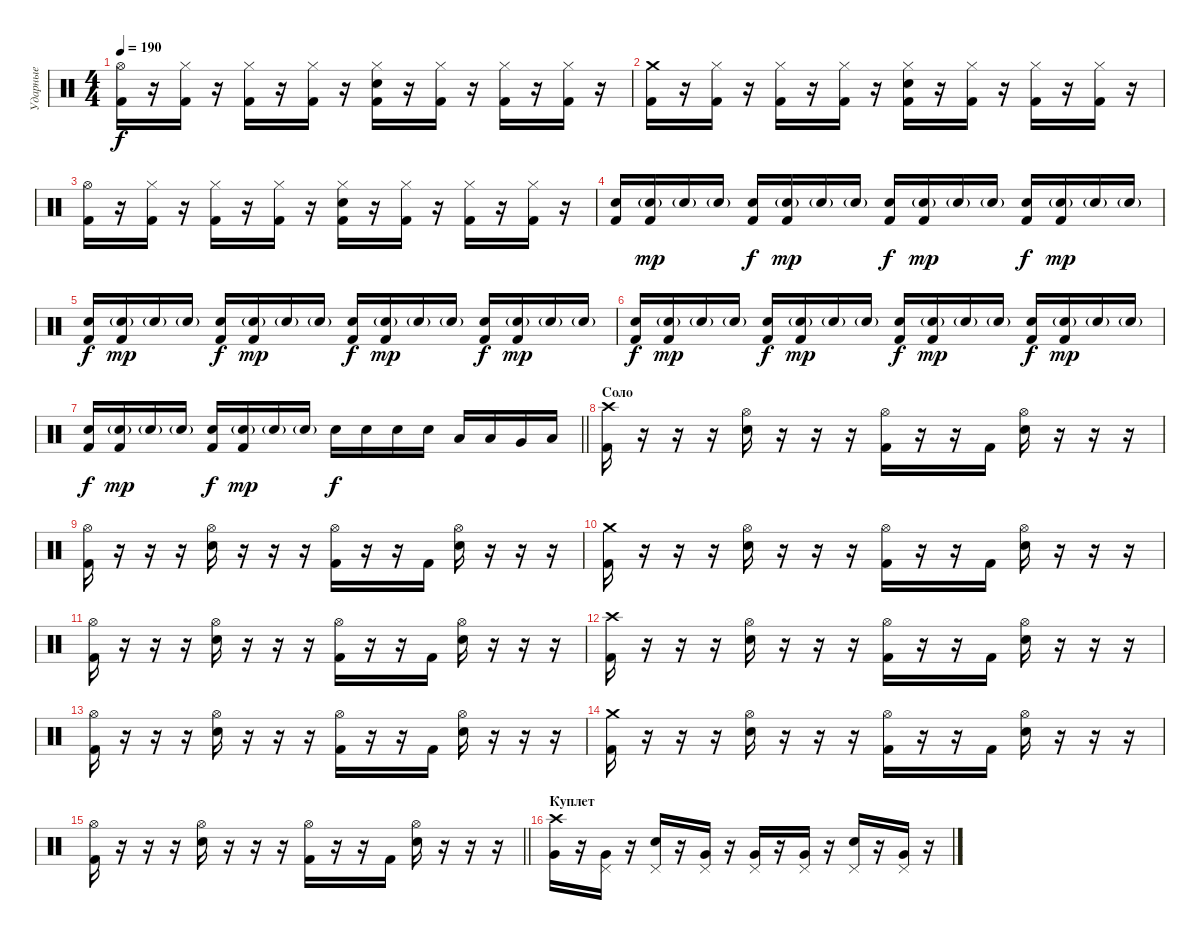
\track ("Ударные" "Ударные") {instrument percussion}
\staff {score}
\articulation defaults
\ts (4 4)
\tempo 190
\clef neutral
\ks c
("Hi-Hat (open)" "Kick (hit) 2").16{dy f} r.16 ("Kick (hit) 2" "Hi-Hat (closed)").16 r.16 ("Kick (hit) 2" "Hi-Hat (closed)").16 r.16 ("Kick (hit) 2" "Hi-Hat (closed)").16 r.16 ("Kick (hit) 2" "Electric Snare (hit)" "Hi-Hat (closed)").16 r.16 ("Kick (hit) 2" "Hi-Hat (closed)").16 r.16 ("Kick (hit) 2" "Hi-Hat (closed)").16 r.16 ("Kick (hit) 2" "Hi-Hat (closed)").16 r.16 |
("Crash medium (hit)" "Kick (hit) 2").16 r.16 ("Kick (hit) 2" "Hi-Hat (closed)").16 r.16 ("Kick (hit) 2" "Hi-Hat (closed)").16 r.16 ("Kick (hit) 2" "Hi-Hat (closed)").16 r.16 ("Kick (hit) 2" "Electric Snare (hit)" "Hi-Hat (closed)").16 r.16 ("Kick (hit) 2" "Hi-Hat (closed)").16 r.16 ("Kick (hit) 2" "Hi-Hat (closed)").16 r.16 ("Kick (hit) 2" "Hi-Hat (closed)").16 r.16 |
("Hi-Hat (open)" "Kick (hit) 2").16 r.16 ("Kick (hit) 2" "Hi-Hat (closed)").16 r.16 ("Kick (hit) 2" "Hi-Hat (closed)").16 r.16 ("Kick (hit) 2" "Hi-Hat (closed)").16 r.16 ("Kick (hit) 2" "Electric Snare (hit)" "Hi-Hat (closed)").16 r.16 ("Kick (hit) 2" "Hi-Hat (closed)").16 r.16 ("Kick (hit) 2" "Hi-Hat (closed)").16 r.16 ("Kick (hit) 2" "Hi-Hat (closed)").16 r.16 |
("Electric Snare (hit)" "Kick (hit) 2").16 ("Electric Snare (hit)"{g} "Kick (hit) 2").16{dy mp} "Electric Snare (hit)"{g}.16 "Electric Snare (hit)"{g}.16 ("Electric Snare (hit)" "Kick (hit) 2").16{dy f} ("Electric Snare (hit)"{g} "Kick (hit) 2").16{dy mp} "Electric Snare (hit)"{g}.16 "Electric Snare (hit)"{g}.16 ("Electric Snare (hit)" "Kick (hit) 2").16{dy f} ("Electric Snare (hit)"{g} "Kick (hit) 2").16{dy mp} "Electric Snare (hit)"{g}.16 "Electric Snare (hit)"{g}.16 ("Electric Snare (hit)" "Kick (hit) 2").16{dy f} ("Electric Snare (hit)"{g} "Kick (hit) 2").16{dy mp} "Electric Snare (hit)"{g}.16 "Electric Snare (hit)"{g}.16 |
("Electric Snare (hit)" "Kick (hit) 2").16{dy f} ("Electric Snare (hit)"{g} "Kick (hit) 2").16{dy mp} "Electric Snare (hit)"{g}.16 "Electric Snare (hit)"{g}.16 ("Electric Snare (hit)" "Kick (hit) 2").16{dy f} ("Electric Snare (hit)"{g} "Kick (hit) 2").16{dy mp} "Electric Snare (hit)"{g}.16 "Electric Snare (hit)"{g}.16 ("Electric Snare (hit)" "Kick (hit) 2").16{dy f} ("Electric Snare (hit)"{g} "Kick (hit) 2").16{dy mp} "Electric Snare (hit)"{g}.16 "Electric Snare (hit)"{g}.16 ("Electric Snare (hit)" "Kick (hit) 2").16{dy f} ("Electric Snare (hit)"{g} "Kick (hit) 2").16{dy mp} "Electric Snare (hit)"{g}.16 "Electric Snare (hit)"{g}.16 |
("Electric Snare (hit)" "Kick (hit) 2").16{dy f} ("Electric Snare (hit)"{g} "Kick (hit) 2").16{dy mp} "Electric Snare (hit)"{g}.16 "Electric Snare (hit)"{g}.16 ("Electric Snare (hit)" "Kick (hit) 2").16{dy f} ("Electric Snare (hit)"{g} "Kick (hit) 2").16{dy mp} "Electric Snare (hit)"{g}.16 "Electric Snare (hit)"{g}.16 ("Electric Snare (hit)" "Kick (hit) 2").16{dy f} ("Electric Snare (hit)"{g} "Kick (hit) 2").16{dy mp} "Electric Snare (hit)"{g}.16 "Electric Snare (hit)"{g}.16 ("Electric Snare (hit)" "Kick (hit) 2").16{dy f} ("Electric Snare (hit)"{g} "Kick (hit) 2").16{dy mp} "Electric Snare (hit)"{g}.16 "Electric Snare (hit)"{g}.16 |
\barLineRight lightlight
("Electric Snare (hit)" "Kick (hit) 2").16{dy f} ("Electric Snare (hit)"{g} "Kick (hit) 2").16{dy mp} "Electric Snare (hit)"{g}.16 "Electric Snare (hit)"{g}.16 ("Electric Snare (hit)" "Kick (hit) 2").16{dy f} ("Electric Snare (hit)"{g} "Kick (hit) 2").16{dy mp} "Electric Snare (hit)"{g}.16 "Electric Snare (hit)"{g}.16 "Electric Snare (hit)".16{dy f} "Electric Snare (hit)".16 "Electric Snare (hit)".16 "Electric Snare (hit)".16 "Low Tom (hit)".16 "Low Tom (hit)".16 "Very Low Tom (hit)".16 "Low Floor Tom (hit)".16 |
\section ("" "Соло")
("Crash high (hit)" "Kick (hit) 2").16 r.16 r.16 r.16 ("Hi-Hat (open)" "Electric Snare (hit)").16 r.16 r.16 r.16 ("Hi-Hat (open)" "Kick (hit) 2").16 r.16 r.16 "Kick (hit) 2".16 ("Hi-Hat (open)" "Electric Snare (hit)").16 r.16 r.16 r.16 |
("Hi-Hat (open)" "Kick (hit) 2").16 r.16 r.16 r.16 ("Hi-Hat (open)" "Electric Snare (hit)").16 r.16 r.16 r.16 ("Hi-Hat (open)" "Kick (hit) 2").16 r.16 r.16 "Kick (hit) 2".16 ("Hi-Hat (open)" "Electric Snare (hit)").16 r.16 r.16 r.16 |
("Crash medium (hit)" "Kick (hit) 2").16 r.16 r.16 r.16 ("Hi-Hat (open)" "Electric Snare (hit)").16 r.16 r.16 r.16 ("Hi-Hat (open)" "Kick (hit) 2").16 r.16 r.16 "Kick (hit) 2".16 ("Hi-Hat (open)" "Electric Snare (hit)").16 r.16 r.16 r.16 |
("Hi-Hat (open)" "Kick (hit) 2").16 r.16 r.16 r.16 ("Hi-Hat (open)" "Electric Snare (hit)").16 r.16 r.16 r.16 ("Hi-Hat (open)" "Kick (hit) 2").16 r.16 r.16 "Kick (hit) 2".16 ("Hi-Hat (open)" "Electric Snare (hit)").16 r.16 r.16 r.16 |
("Crash high (hit)" "Kick (hit) 2").16 r.16 r.16 r.16 ("Hi-Hat (open)" "Electric Snare (hit)").16 r.16 r.16 r.16 ("Hi-Hat (open)" "Kick (hit) 2").16 r.16 r.16 "Kick (hit) 2".16 ("Hi-Hat (open)" "Electric Snare (hit)").16 r.16 r.16 r.16 |
("Hi-Hat (open)" "Kick (hit) 2").16 r.16 r.16 r.16 ("Hi-Hat (open)" "Electric Snare (hit)").16 r.16 r.16 r.16 ("Hi-Hat (open)" "Kick (hit) 2").16 r.16 r.16 "Kick (hit) 2".16 ("Hi-Hat (open)" "Electric Snare (hit)").16 r.16 r.16 r.16 |
("Crash medium (hit)" "Kick (hit) 2").16 r.16 r.16 r.16 ("Hi-Hat (open)" "Electric Snare (hit)").16 r.16 r.16 r.16 ("Hi-Hat (open)" "Kick (hit) 2").16 r.16 r.16 "Kick (hit) 2".16 ("Hi-Hat (open)" "Electric Snare (hit)").16 r.16 r.16 r.16 |
\barLineRight lightlight
("Hi-Hat (open)" "Kick (hit) 2").16 r.16 r.16 r.16 ("Hi-Hat (open)" "Electric Snare (hit)").16 r.16 r.16 r.16 ("Hi-Hat (open)" "Kick (hit) 2").16 r.16 r.16 "Kick (hit) 2".16 ("Hi-Hat (open)" "Electric Snare (hit)").16 r.16 r.16 r.16 |
\section ("" "Куплет")
("Very Low Tom (hit)" "Crash high (hit)").16 r.16 ("Very Low Tom (hit)" "Pedal Hi-Hat (hit)").16 r.16 ("Electric Snare (hit)" "Pedal Hi-Hat (hit)").16 r.16 ("Very Low Tom (hit)" "Pedal Hi-Hat (hit)").16 r.16 ("Very Low Tom (hit)" "Pedal Hi-Hat (hit)").16 r.16 ("Very Low Tom (hit)" "Pedal Hi-Hat (hit)").16 r.16 ("Electric Snare (hit)" "Pedal Hi-Hat (hit)").16 r.16 ("Very Low Tom (hit)" "Pedal Hi-Hat (hit)").16 r.16
